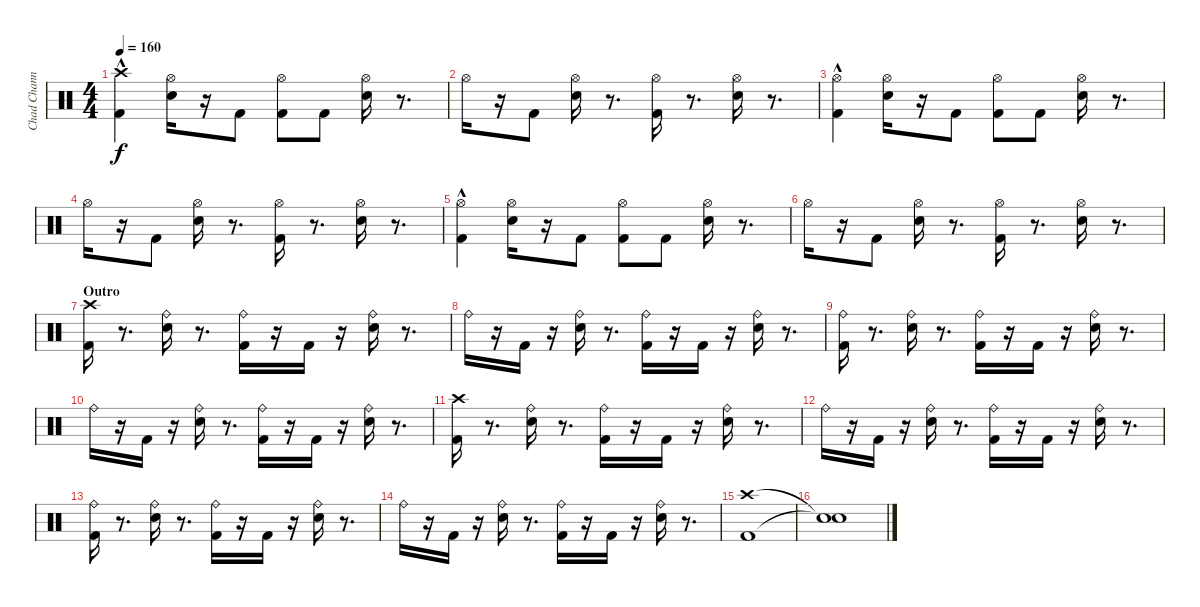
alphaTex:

\track ("Chad Channing" "Chad Chann") {instrument percussion}
\staff {score}
\articulation defaults
\ts (4 4)
\tempo 160
\clef neutral
\ks c
("Crash high (hit)" "Kick (hit) 2"{hac}).4{dy f} ("Hi-Hat (open)" "Electric Snare (hit)").16 r.16 "Kick (hit) 2".8 ("Hi-Hat (open)" "Kick (hit) 2").8 "Kick (hit) 2".8 ("Hi-Hat (open)" "Electric Snare (hit)").16 r.8{d} |
"Hi-Hat (open)".16 r.16 "Kick (hit) 2".8 ("Hi-Hat (open)" "Electric Snare (hit)").16 r.8{d} ("Hi-Hat (open)" "Kick (hit) 2").16 r.8{d} ("Hi-Hat (open)" "Electric Snare (hit)").16 r.8{d} |
("Kick (hit) 2"{hac} "Hi-Hat (open)").4 ("Hi-Hat (open)" "Electric Snare (hit)").16 r.16 "Kick (hit) 2".8 ("Hi-Hat (open)" "Kick (hit) 2").8 "Kick (hit) 2".8 ("Hi-Hat (open)" "Electric Snare (hit)").16 r.8{d} |
"Hi-Hat (open)".16 r.16 "Kick (hit) 2".8 ("Hi-Hat (open)" "Electric Snare (hit)").16 r.8{d} ("Hi-Hat (open)" "Kick (hit) 2").16 r.8{d} ("Hi-Hat (open)" "Electric Snare (hit)").16 r.8{d} |
("Kick (hit) 2"{hac} "Hi-Hat (open)").4 ("Hi-Hat (open)" "Electric Snare (hit)").16 r.16 "Kick (hit) 2".8 ("Hi-Hat (open)" "Kick (hit) 2").8 "Kick (hit) 2".8 ("Hi-Hat (open)" "Electric Snare (hit)").16 r.8{d} |
"Hi-Hat (open)".16 r.16 "Kick (hit) 2".8 ("Hi-Hat (open)" "Electric Snare (hit)").16 r.8{d} ("Hi-Hat (open)" "Kick (hit) 2").16 r.8{d} ("Hi-Hat (open)" "Electric Snare (hit)").16 r.8{d} |
\section ("" "Outro")
("Crash high (hit)" "Kick (hit) 2").16 r.8{d} ("Electric Snare (hit)" "Ride (bell)").16 r.8{d} ("Kick (hit) 2" "Ride (bell)").16 r.16 "Kick (hit) 2".16 r.16 ("Electric Snare (hit)" "Ride (bell)").16 r.8{d} |
"Ride (bell)".16 r.16 "Kick (hit) 2".16 r.16 ("Electric Snare (hit)" "Ride (bell)").16 r.8{d} ("Kick (hit) 2" "Ride (bell)").16 r.16 "Kick (hit) 2".16 r.16 ("Electric Snare (hit)" "Ride (bell)").16 r.8{d} |
("Kick (hit) 2" "Ride (bell)").16 r.8{d} ("Electric Snare (hit)" "Ride (bell)").16 r.8{d} ("Kick (hit) 2" "Ride (bell)").16 r.16 "Kick (hit) 2".16 r.16 ("Electric Snare (hit)" "Ride (bell)").16 r.8{d} |
"Ride (bell)".16 r.16 "Kick (hit) 2".16 r.16 ("Electric Snare (hit)" "Ride (bell)").16 r.8{d} ("Kick (hit) 2" "Ride (bell)").16 r.16 "Kick (hit) 2".16 r.16 ("Electric Snare (hit)" "Ride (bell)").16 r.8{d} |
("Crash high (hit)" "Kick (hit) 2").16 r.8{d} ("Electric Snare (hit)" "Ride (bell)").16 r.8{d} ("Kick (hit) 2" "Ride (bell)").16 r.16 "Kick (hit) 2".16 r.16 ("Electric Snare (hit)" "Ride (bell)").16 r.8{d} |
"Ride (bell)".16 r.16 "Kick (hit) 2".16 r.16 ("Electric Snare (hit)" "Ride (bell)").16 r.8{d} ("Kick (hit) 2" "Ride (bell)").16 r.16 "Kick (hit) 2".16 r.16 ("Electric Snare (hit)" "Ride (bell)").16 r.8{d} |
("Kick (hit) 2" "Ride (bell)").16 r.8{d} ("Electric Snare (hit)" "Ride (bell)").16 r.8{d} ("Kick (hit) 2" "Ride (bell)").16 r.16 "Kick (hit) 2".16 r.16 ("Electric Snare (hit)" "Ride (bell)").16 r.8{d} |
"Ride (bell)".16 r.16 "Kick (hit) 2".16 r.16 ("Electric Snare (hit)" "Ride (bell)").16 r.8{d} ("Kick (hit) 2" "Ride (bell)").16 r.16 "Kick (hit) 2".16 r.16 ("Electric Snare (hit)" "Ride (bell)").16 r.8{d} |
("Kick (hit) 2" "Crash high (hit)").1 |
("Snare (hit)"{t} "Snare (hit)"{t}).1
